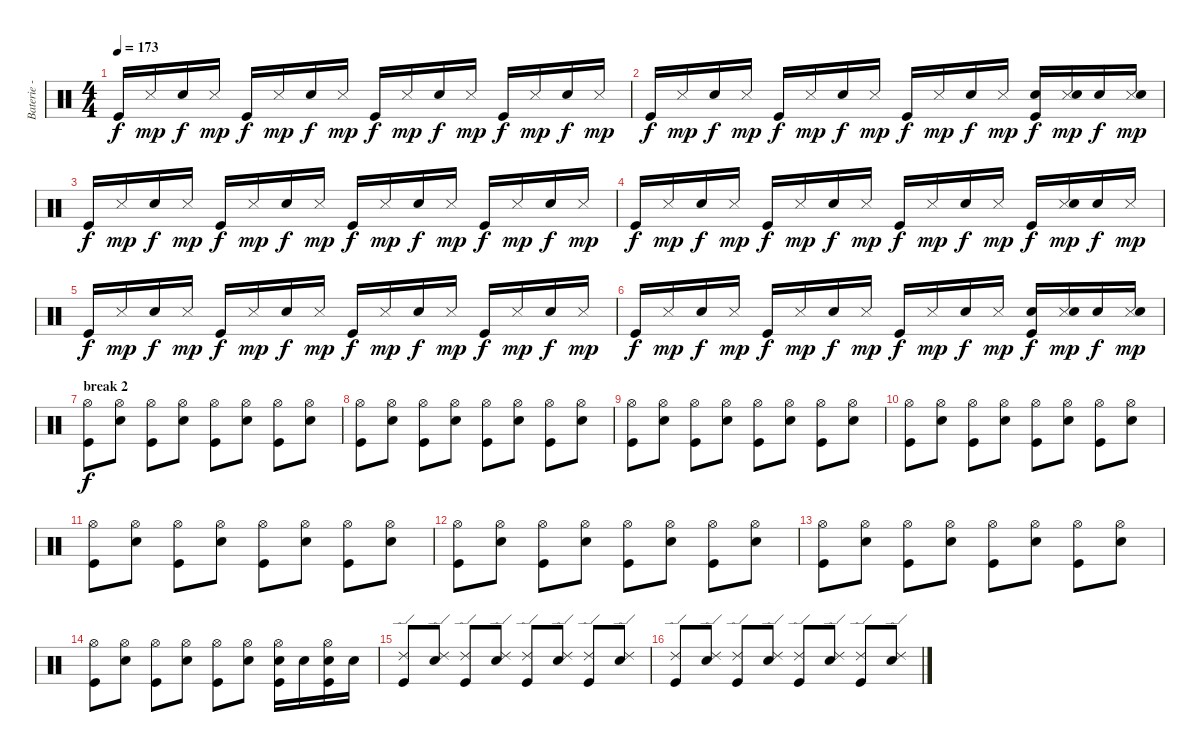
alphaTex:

\track ("Baterie - Guillaume" "Baterie - ") {instrument percussion}
\staff {score}
\articulation defaults
\ts (4 4)
\tempo 173
\clef neutral
\ks c "Kick (hit)".16{dy f} "Snare (side stick) 3".16{dy mp} "Snare (hit) 2".16{dy f} "Snare (side stick) 3".16{dy mp} "Kick (hit)".16{dy f} "Snare (side stick) 3".16{dy mp} "Snare (hit) 2".16{dy f} "Snare (side stick) 3".16{dy mp} "Kick (hit)".16{dy f} "Snare (side stick) 3".16{dy mp} "Snare (hit) 2".16{dy f} "Snare (side stick) 3".16{dy mp} "Kick (hit)".16{dy f} "Snare (side stick) 3".16{dy mp} "Snare (hit) 2".16{dy f} "Snare (side stick) 3".16{dy mp}
|
"Kick (hit)".16{dy f} "Snare (side stick) 3".16{dy mp} "Snare (hit) 2".16{dy f} "Snare (side stick) 3".16{dy mp} "Kick (hit)".16{dy f} "Snare (side stick) 3".16{dy mp} "Snare (hit) 2".16{dy f} "Snare (side stick) 3".16{dy mp} "Kick (hit)".16{dy f} "Snare (side stick) 3".16{dy mp} "Snare (hit) 2".16{dy f} "Snare (side stick) 3".16{dy mp} ("Snare (hit) 2" "Kick (hit)").16{dy f} ("Snare (side stick) 3" "Snare (hit) 2").16{dy mp} "Snare (hit) 2".16{dy f} ("Snare (side stick) 3" "Snare (hit) 2").16{dy mp} |
"Kick (hit)".16{dy f} "Snare (side stick) 3".16{dy mp} "Snare (hit) 2".16{dy f} "Snare (side stick) 3".16{dy mp} "Kick (hit)".16{dy f} "Snare (side stick) 3".16{dy mp} "Snare (hit) 2".16{dy f} "Snare (side stick) 3".16{dy mp} "Kick (hit)".16{dy f} "Snare (side stick) 3".16{dy mp} "Snare (hit) 2".16{dy f} "Snare (side stick) 3".16{dy mp} "Kick (hit)".16{dy f} "Snare (side stick) 3".16{dy mp} "Snare (hit) 2".16{dy f} "Snare (side stick) 3".16{dy mp} |
"Kick (hit)".16{dy f} "Snare (side stick) 3".16{dy mp} "Snare (hit) 2".16{dy f} "Snare (side stick) 3".16{dy mp} "Kick (hit)".16{dy f} "Snare (side stick) 3".16{dy mp} "Snare (hit) 2".16{dy f} "Snare (side stick) 3".16{dy mp} "Kick (hit)".16{dy f} "Snare (side stick) 3".16{dy mp} "Snare (hit) 2".16{dy f} "Snare (side stick) 3".16{dy mp} "Kick (hit)".16{dy f} ("Snare (side stick) 3" "Snare (hit) 2").16{dy mp} "Snare (hit) 2".16{dy f} "Snare (side stick) 3".16{dy mp} |
"Kick (hit)".16{dy f} "Snare (side stick) 3".16{dy mp} "Snare (hit) 2".16{dy f} "Snare (side stick) 3".16{dy mp} "Kick (hit)".16{dy f} "Snare (side stick) 3".16{dy mp} "Snare (hit) 2".16{dy f} "Snare (side stick) 3".16{dy mp} "Kick (hit)".16{dy f} "Snare (side stick) 3".16{dy mp} "Snare (hit) 2".16{dy f} "Snare (side stick) 3".16{dy mp} "Kick (hit)".16{dy f} "Snare (side stick) 3".16{dy mp} "Snare (hit) 2".16{dy f} "Snare (side stick) 3".16{dy mp} |
"Kick (hit)".16{dy f} "Snare (side stick) 3".16{dy mp} "Snare (hit) 2".16{dy f} "Snare (side stick) 3".16{dy mp} "Kick (hit)".16{dy f} "Snare (side stick) 3".16{dy mp} "Snare (hit) 2".16{dy f} "Snare (side stick) 3".16{dy mp} "Kick (hit)".16{dy f} "Snare (side stick) 3".16{dy mp} "Snare (hit) 2".16{dy f} "Snare (side stick) 3".16{dy mp} ("Snare (hit) 2" "Kick (hit)").16{dy f} ("Snare (side stick) 3" "Snare (hit) 2").16{dy mp} "Snare (hit) 2".16{dy f} ("Snare (side stick) 3" "Snare (hit) 2").16{dy mp} |
\section ("" "break 2")
("Hi-Hat (open)" "Kick (hit)").8{dy f} ("Hi-Hat (open)" "Snare (hit) 2").8 ("Hi-Hat (open)" "Kick (hit)").8 ("Hi-Hat (open)" "Snare (hit) 2").8 ("Hi-Hat (open)" "Kick (hit)").8 ("Hi-Hat (open)" "Snare (hit) 2").8 ("Hi-Hat (open)" "Kick (hit)").8 ("Hi-Hat (open)" "Snare (hit) 2").8 |
("Hi-Hat (open)" "Kick (hit)").8 ("Hi-Hat (open)" "Snare (hit) 2").8 ("Hi-Hat (open)" "Kick (hit)").8 ("Hi-Hat (open)" "Snare (hit) 2").8 ("Hi-Hat (open)" "Kick (hit)").8 ("Hi-Hat (open)" "Snare (hit) 2").8 ("Hi-Hat (open)" "Kick (hit)").8 ("Hi-Hat (open)" "Snare (hit) 2").8 |
("Hi-Hat (open)" "Kick (hit)").8 ("Hi-Hat (open)" "Snare (hit) 2").8 ("Hi-Hat (open)" "Kick (hit)").8 ("Hi-Hat (open)" "Snare (hit) 2").8 ("Hi-Hat (open)" "Kick (hit)").8 ("Hi-Hat (open)" "Snare (hit) 2").8 ("Hi-Hat (open)" "Kick (hit)").8 ("Hi-Hat (open)" "Snare (hit) 2").8 |
("Hi-Hat (open)" "Kick (hit)").8 ("Hi-Hat (open)" "Snare (hit) 2").8 ("Hi-Hat (open)" "Kick (hit)").8 ("Hi-Hat (open)" "Snare (hit) 2").8 ("Hi-Hat (open)" "Kick (hit)").8 ("Hi-Hat (open)" "Snare (hit) 2").8 ("Hi-Hat (open)" "Kick (hit)").8 ("Hi-Hat (open)" "Snare (hit) 2").8 |
("Hi-Hat (open)" "Kick (hit)").8 ("Hi-Hat (open)" "Snare (hit) 2").8 ("Hi-Hat (open)" "Kick (hit)").8 ("Hi-Hat (open)" "Snare (hit) 2").8 ("Hi-Hat (open)" "Kick (hit)").8 ("Hi-Hat (open)" "Snare (hit) 2").8 ("Hi-Hat (open)" "Kick (hit)").8 ("Hi-Hat (open)" "Snare (hit) 2").8 |
("Hi-Hat (open)" "Kick (hit)").8 ("Hi-Hat (open)" "Snare (hit) 2").8 ("Hi-Hat (open)" "Kick (hit)").8 ("Hi-Hat (open)" "Snare (hit) 2").8 ("Hi-Hat (open)" "Kick (hit)").8 ("Hi-Hat (open)" "Snare (hit) 2").8 ("Hi-Hat (open)" "Kick (hit)").8 ("Hi-Hat (open)" "Snare (hit) 2").8 |
("Hi-Hat (open)" "Kick (hit)").8 ("Hi-Hat (open)" "Snare (hit) 2").8 ("Hi-Hat (open)" "Kick (hit)").8 ("Hi-Hat (open)" "Snare (hit) 2").8 ("Hi-Hat (open)" "Kick (hit)").8 ("Hi-Hat (open)" "Snare (hit) 2").8 ("Hi-Hat (open)" "Kick (hit)").8 ("Hi-Hat (open)" "Snare (hit) 2").8 |
("Hi-Hat (open)" "Kick (hit)").8 ("Hi-Hat (open)" "Snare (hit) 2").8 ("Hi-Hat (open)" "Kick (hit)").8 ("Hi-Hat (open)" "Snare (hit) 2").8 ("Hi-Hat (open)" "Kick (hit)").8 ("Hi-Hat (open)" "Snare (hit) 2").8 ("Hi-Hat (open)" "Snare (hit) 2" "Kick (hit)").16 "Snare (hit) 2".16 ("Hi-Hat (open)" "Snare (hit) 2" "Kick (hit)").16 "Snare (hit) 2".16 |
("Ride (edge) 2" "Kick (hit)").8 ("Ride (edge) 2" "Snare (hit) 2").8 ("Ride (edge) 2" "Kick (hit)").8 ("Ride (edge) 2" "Snare (hit) 2").8 ("Ride (edge) 2" "Kick (hit)").8 ("Ride (edge) 2" "Snare (hit) 2").8 ("Ride (edge) 2" "Kick (hit)").8 ("Ride (edge) 2" "Snare (hit) 2").8 |
("Ride (edge) 2" "Kick (hit)").8 ("Ride (edge) 2" "Snare (hit) 2").8 ("Ride (edge) 2" "Kick (hit)").8 ("Ride (edge) 2" "Snare (hit) 2").8 ("Ride (edge) 2" "Kick (hit)").8 ("Ride (edge) 2" "Snare (hit) 2").8 ("Ride (edge) 2" "Kick (hit)").8 ("Ride (edge) 2" "Snare (hit) 2").8
